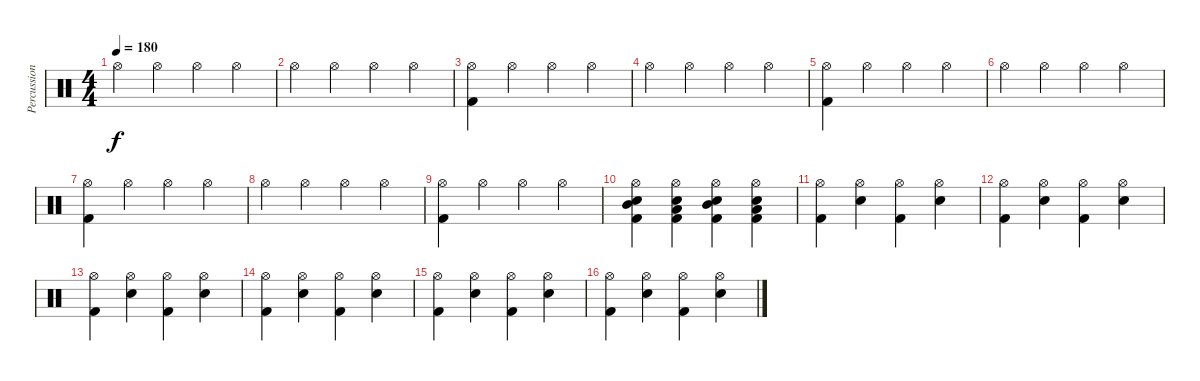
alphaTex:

\track ("Percussion" "Percussion") {instrument percussion}
\staff {score}
\articulation defaults
\ts (4 4)
\tempo 180
\clef neutral
\ks c "Hi-Hat (open)".4{dy f} "Hi-Hat (open)".4 "Hi-Hat (open)".4 "Hi-Hat (open)".4
|
"Hi-Hat (open)".4 "Hi-Hat (open)".4 "Hi-Hat (open)".4 "Hi-Hat (open)".4 |
("Hi-Hat (open)" "Kick (hit) 2").4 "Hi-Hat (open)".4 "Hi-Hat (open)".4 "Hi-Hat (open)".4 |
"Hi-Hat (open)".4 "Hi-Hat (open)".4 "Hi-Hat (open)".4 "Hi-Hat (open)".4 |
("Hi-Hat (open)" "Kick (hit) 2").4 "Hi-Hat (open)".4 "Hi-Hat (open)".4 "Hi-Hat (open)".4 |
"Hi-Hat (open)".4 "Hi-Hat (open)".4 "Hi-Hat (open)".4 "Hi-Hat (open)".4 |
("Hi-Hat (open)" "Kick (hit) 2").4 "Hi-Hat (open)".4 "Hi-Hat (open)".4 "Hi-Hat (open)".4 |
"Hi-Hat (open)".4 "Hi-Hat (open)".4 "Hi-Hat (open)".4 "Hi-Hat (open)".4 |
("Hi-Hat (open)" "Kick (hit) 2").4 "Hi-Hat (open)".4 "Hi-Hat (open)".4 "Hi-Hat (open)".4 |
("Mid Tom (hit)" "Hi-Hat (open)" "Kick (hit) 2" "Electric Snare (hit)").4 ("Low Tom (hit)" "Hi-Hat (open)" "Kick (hit) 2" "Electric Snare (hit)").4 ("Mid Tom (hit)" "Hi-Hat (open)" "Kick (hit) 2" "Electric Snare (hit)").4 ("Low Tom (hit)" "Hi-Hat (open)" "Kick (hit) 2" "Electric Snare (hit)").4 |
("Hi-Hat (open)" "Kick (hit) 2").4 ("Hi-Hat (open)" "Electric Snare (hit)").4 ("Hi-Hat (open)" "Kick (hit) 2").4 ("Hi-Hat (open)" "Electric Snare (hit)").4 |
("Hi-Hat (open)" "Kick (hit) 2").4 ("Hi-Hat (open)" "Electric Snare (hit)").4 ("Hi-Hat (open)" "Kick (hit) 2").4 ("Hi-Hat (open)" "Electric Snare (hit)").4 |
("Hi-Hat (open)" "Kick (hit) 2").4 ("Hi-Hat (open)" "Electric Snare (hit)").4 ("Hi-Hat (open)" "Kick (hit) 2").4 ("Hi-Hat (open)" "Electric Snare (hit)").4 |
("Hi-Hat (open)" "Kick (hit) 2").4 ("Hi-Hat (open)" "Electric Snare (hit)").4 ("Hi-Hat (open)" "Kick (hit) 2").4 ("Hi-Hat (open)" "Electric Snare (hit)").4 |
("Hi-Hat (open)" "Kick (hit) 2").4 ("Hi-Hat (open)" "Electric Snare (hit)").4 ("Hi-Hat (open)" "Kick (hit) 2").4 ("Hi-Hat (open)" "Electric Snare (hit)").4 |
("Hi-Hat (open)" "Kick (hit) 2").4 ("Hi-Hat (open)" "Electric Snare (hit)").4 ("Hi-Hat (open)" "Kick (hit) 2").4 ("Hi-Hat (open)" "Electric Snare (hit)").4
